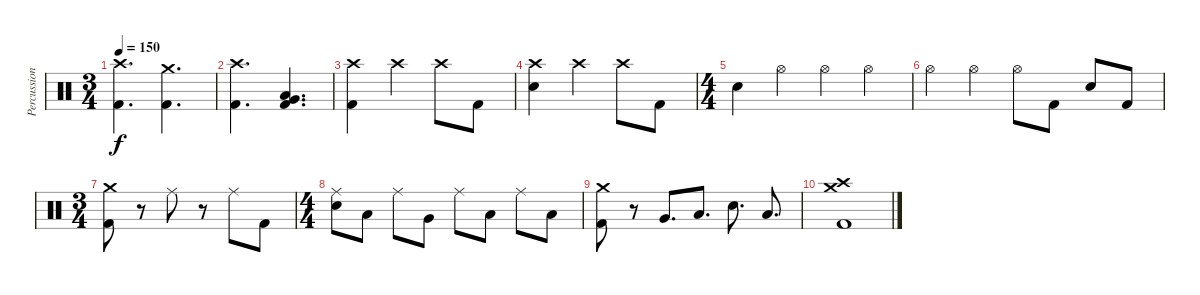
\track ("Percussion" "Percussion") {instrument percussion}
\staff {score}
\articulation defaults
\ts (3 4)
\tempo 150
\clef neutral
\ks c
("Crash high (hit)" "Kick (hit) 2").4{d dy f} ("Crash medium (hit)" "Kick (hit) 2").4{d} |
("Crash high (hit)" "Kick (hit) 2").4{d} ("Low Tom (hit)" "Very Low Tom (hit)" "Kick (hit) 2").4{d} |
("Crash high (hit)" "Kick (hit) 2").4 "Crash high (hit)".4 "Crash high (hit)".8 "Kick (hit) 2".8 |
("Crash high (hit)" "Electric Snare (hit)").4 "Crash high (hit)".4 "Crash high (hit)".8 "Kick (hit) 2".8 |
\ts (4 4)
"Electric Snare (hit)".4 "Hi-Hat (open)".4 "Hi-Hat (open)".4 "Hi-Hat (open)".4 |
"Hi-Hat (open)".4 "Hi-Hat (open)".4 "Hi-Hat (open)".8 "Kick (hit) 2".8 "Electric Snare (hit)".8 "Kick (hit) 2".8 |
\ts (3 4)
("Crash medium (hit)" "Kick (hit) 2").8 r.8 "Ride (middle)".8 r.8 "Ride (middle)".8 "Kick (hit) 2".8 |
\ts (4 4)
("Ride (middle)" "Electric Snare (hit)").8 "Low Tom (hit)".8 "Ride (middle)".8 "Very Low Tom (hit)".8 "Ride (middle)".8 "Low Floor Tom (hit)".8 "Ride (middle)".8 "Low Floor Tom (hit)".8 |
("Crash medium (hit)" "Kick (hit) 2").8 r.8 "Very Low Tom (hit)".8{d} "Low Floor Tom (hit)".8{d} "Electric Snare (hit)".8{d} "Low Tom (hit)".8{d} |
("Crash high (hit)" "Crash medium (hit)" "Kick (hit) 2").1
